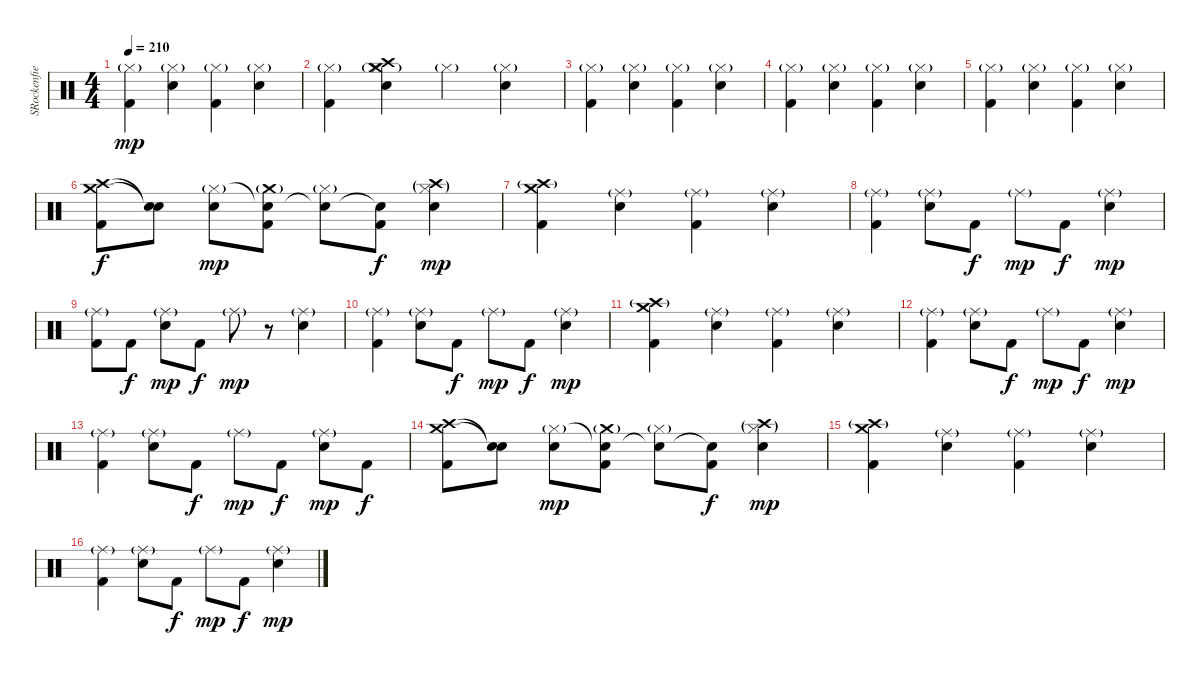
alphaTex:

\track ("SRockenfield" "SRockenfie") {instrument percussion}
\staff {score}
\articulation defaults
\ts (4 4)
\tempo 210
\clef neutral
\ks c
("Hi-Hat (closed)"{g} "Kick (hit) 2").4{dy mp} ("Hi-Hat (closed)"{g} "Electric Snare (hit)").4 ("Hi-Hat (closed)"{g} "Kick (hit) 2").4 ("Hi-Hat (closed)"{g} "Electric Snare (hit)").4 |
("Hi-Hat (closed)"{g} "Kick (hit) 2").4 ("Hi-Hat (closed)"{g} "Crash medium (hit)"{g} "Crash high (hit)" "Electric Snare (hit)").4 "Hi-Hat (closed)"{g}.4 ("Hi-Hat (closed)"{g} "Electric Snare (hit)").4 |
("Hi-Hat (closed)"{g} "Kick (hit) 2").4 ("Hi-Hat (closed)"{g} "Electric Snare (hit)").4 ("Hi-Hat (closed)"{g} "Kick (hit) 2").4 ("Hi-Hat (closed)"{g} "Electric Snare (hit)").4 |
("Hi-Hat (closed)"{g} "Kick (hit) 2").4 ("Hi-Hat (closed)"{g} "Electric Snare (hit)").4 ("Hi-Hat (closed)"{g} "Kick (hit) 2").4 ("Hi-Hat (closed)"{g} "Electric Snare (hit)").4 |
("Hi-Hat (closed)"{g} "Kick (hit) 2").4 ("Hi-Hat (closed)"{g} "Electric Snare (hit)").4 ("Hi-Hat (closed)"{g} "Kick (hit) 2").4 ("Hi-Hat (closed)"{g} "Electric Snare (hit)").4 |
("Crash high (hit)" "Crash medium (hit)" "Kick (hit) 2").8{dy f} ("Snare (hit)"{t} "Snare (hit)"{t}).8 ("Hi-Hat (closed)"{g} "Electric Snare (hit)").8{dy mp} ("Snare (hit)"{t} "Crash medium (hit)"{g} "Kick (hit) 2").8 ("Snare (hit)"{t} "Hi-Hat (closed)"{g}).8 ("Snare (hit)"{t} "Kick (hit) 2").8{dy f} ("Crash high (hit)"{g} "Hi-Hat (closed)"{g} "Electric Snare (hit)").4{dy mp} |
("Crash high (hit)"{g} "Crash medium (hit)" "Kick (hit) 2").4 ("Ride (middle)"{g} "Electric Snare (hit)").4 ("Ride (middle)"{g} "Kick (hit) 2").4 ("Ride (middle)"{g} "Electric Snare (hit)").4 |
("Ride (middle)"{g} "Kick (hit) 2").4 ("Ride (middle)"{g} "Electric Snare (hit)").8 "Kick (hit) 2".8{dy f} "Ride (middle)"{g}.8{dy mp} "Kick (hit) 2".8{dy f} ("Ride (middle)"{g} "Electric Snare (hit)").4{dy mp} |
("Ride (middle)"{g} "Kick (hit) 2").8 "Kick (hit) 2".8{dy f} ("Ride (middle)"{g} "Electric Snare (hit)").8{dy mp} "Kick (hit) 2".8{dy f} "Ride (middle)"{g}.8{dy mp} r.8 ("Ride (middle)"{g} "Electric Snare (hit)").4 |
("Ride (middle)"{g} "Kick (hit) 2").4 ("Ride (middle)"{g} "Electric Snare (hit)").8 "Kick (hit) 2".8{dy f} "Ride (middle)"{g}.8{dy mp} "Kick (hit) 2".8{dy f} ("Ride (middle)"{g} "Electric Snare (hit)").4{dy mp} |
("Crash high (hit)"{g} "Crash medium (hit)" "Kick (hit) 2").4 ("Ride (middle)"{g} "Electric Snare (hit)").4 ("Ride (middle)"{g} "Kick (hit) 2").4 ("Ride (middle)"{g} "Electric Snare (hit)").4 |
("Ride (middle)"{g} "Kick (hit) 2").4 ("Ride (middle)"{g} "Electric Snare (hit)").8 "Kick (hit) 2".8{dy f} "Ride (middle)"{g}.8{dy mp} "Kick (hit) 2".8{dy f} ("Ride (middle)"{g} "Electric Snare (hit)").4{dy mp} |
("Ride (middle)"{g} "Kick (hit) 2").4 ("Ride (middle)"{g} "Electric Snare (hit)").8 "Kick (hit) 2".8{dy f} "Ride (middle)"{g}.8{dy mp} "Kick (hit) 2".8{dy f} ("Ride (middle)"{g} "Electric Snare (hit)").8{dy mp} "Kick (hit) 2".8{dy f} |
("Crash high (hit)" "Crash medium (hit)" "Kick (hit) 2").8 ("Snare (hit)"{t} "Snare (hit)"{t}).8 ("Hi-Hat (closed)"{g} "Electric Snare (hit)").8{dy mp} ("Snare (hit)"{t} "Crash medium (hit)"{g} "Kick (hit) 2").8 ("Snare (hit)"{t} "Hi-Hat (closed)"{g}).8 ("Snare (hit)"{t} "Kick (hit) 2").8{dy f} ("Crash high (hit)"{g} "Hi-Hat (closed)"{g} "Electric Snare (hit)").4{dy mp} |
("Crash high (hit)"{g} "Crash medium (hit)" "Kick (hit) 2").4 ("Ride (middle)"{g} "Electric Snare (hit)").4 ("Ride (middle)"{g} "Kick (hit) 2").4 ("Ride (middle)"{g} "Electric Snare (hit)").4 |
("Ride (middle)"{g} "Kick (hit) 2").4 ("Ride (middle)"{g} "Electric Snare (hit)").8 "Kick (hit) 2".8{dy f} "Ride (middle)"{g}.8{dy mp} "Kick (hit) 2".8{dy f} ("Ride (middle)"{g} "Electric Snare (hit)").4{dy mp}
